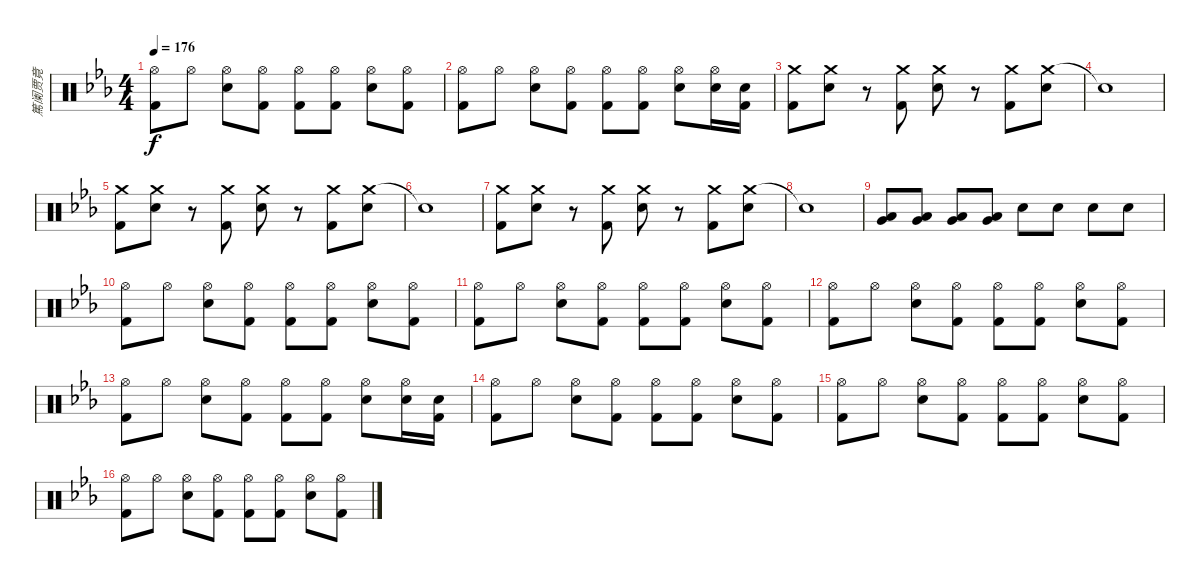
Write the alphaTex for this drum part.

\track ("篤阑贾竟" "篤阑贾竟") {instrument percussion}
\staff {score}
\articulation defaults
\ts (4 4)
\tempo 176
\clef neutral
\ks eb
("Hi-Hat (open)" "Kick (hit) 2").8{dy f} "Hi-Hat (open)".8 ("Hi-Hat (open)" "Snare (hit) 2").8 ("Hi-Hat (open)" "Kick (hit) 2").8 ("Hi-Hat (open)" "Kick (hit) 2").8 ("Hi-Hat (open)" "Kick (hit) 2").8 ("Hi-Hat (open)" "Snare (hit) 2").8 ("Hi-Hat (open)" "Kick (hit) 2").8 |
("Hi-Hat (open)" "Kick (hit) 2").8 "Hi-Hat (open)".8 ("Hi-Hat (open)" "Snare (hit) 2").8 ("Hi-Hat (open)" "Kick (hit) 2").8 ("Hi-Hat (open)" "Kick (hit) 2").8 ("Hi-Hat (open)" "Kick (hit) 2").8 ("Hi-Hat (open)" "Snare (hit) 2").8 ("Hi-Hat (open)" "Snare (hit) 2").16 ("Snare (hit) 2" "Kick (hit) 2").16 |
("Crash medium (hit)" "Kick (hit) 2").8 ("Crash medium (hit)" "Snare (hit) 2").8 r.8 ("Crash medium (hit)" "Kick (hit) 2").8 ("Crash medium (hit)" "Snare (hit) 2").8 r.8 ("Crash medium (hit)" "Kick (hit) 2").8 ("Crash medium (hit)" "Snare (hit) 2").8 |
"Snare (hit)"{t}.1 |
("Crash medium (hit)" "Kick (hit) 2").8 ("Crash medium (hit)" "Snare (hit) 2").8 r.8 ("Crash medium (hit)" "Kick (hit) 2").8 ("Crash medium (hit)" "Snare (hit) 2").8 r.8 ("Crash medium (hit)" "Kick (hit) 2").8 ("Crash medium (hit)" "Snare (hit) 2").8 |
"Snare (hit)"{t}.1 |
("Crash medium (hit)" "Kick (hit) 2").8 ("Crash medium (hit)" "Snare (hit) 2").8 r.8 ("Crash medium (hit)" "Kick (hit) 2").8 ("Crash medium (hit)" "Snare (hit) 2").8 r.8 ("Crash medium (hit)" "Kick (hit) 2").8 ("Crash medium (hit)" "Snare (hit) 2").8 |
"Snare (hit)"{t}.1 |
("Very Low Tom (hit)" "Low Floor Tom (hit)").8{volume 11} ("Very Low Tom (hit)" "Low Floor Tom (hit)").8 ("Very Low Tom (hit)" "Low Floor Tom (hit)").8 ("Very Low Tom (hit)" "Low Floor Tom (hit)").8 "Snare (hit) 2".8{volume 13} "Snare (hit) 2".8 "Snare (hit) 2".8 "Snare (hit) 2".8 |
("Hi-Hat (open)" "Kick (hit) 2").8 "Hi-Hat (open)".8 ("Hi-Hat (open)" "Snare (hit) 2").8 ("Hi-Hat (open)" "Kick (hit) 2").8 ("Hi-Hat (open)" "Kick (hit) 2").8 ("Hi-Hat (open)" "Kick (hit) 2").8 ("Hi-Hat (open)" "Snare (hit) 2").8 ("Hi-Hat (open)" "Kick (hit) 2").8 |
("Hi-Hat (open)" "Kick (hit) 2").8 "Hi-Hat (open)".8 ("Hi-Hat (open)" "Snare (hit) 2").8 ("Hi-Hat (open)" "Kick (hit) 2").8 ("Hi-Hat (open)" "Kick (hit) 2").8 ("Hi-Hat (open)" "Kick (hit) 2").8 ("Hi-Hat (open)" "Snare (hit) 2").8 ("Hi-Hat (open)" "Kick (hit) 2").8 |
("Hi-Hat (open)" "Kick (hit) 2").8 "Hi-Hat (open)".8 ("Hi-Hat (open)" "Snare (hit) 2").8 ("Hi-Hat (open)" "Kick (hit) 2").8 ("Hi-Hat (open)" "Kick (hit) 2").8 ("Hi-Hat (open)" "Kick (hit) 2").8 ("Hi-Hat (open)" "Snare (hit) 2").8 ("Hi-Hat (open)" "Kick (hit) 2").8 |
("Hi-Hat (open)" "Kick (hit) 2").8 "Hi-Hat (open)".8 ("Hi-Hat (open)" "Snare (hit) 2").8 ("Hi-Hat (open)" "Kick (hit) 2").8 ("Hi-Hat (open)" "Kick (hit) 2").8 ("Hi-Hat (open)" "Kick (hit) 2").8 ("Hi-Hat (open)" "Snare (hit) 2").8 ("Hi-Hat (open)" "Snare (hit) 2").16 ("Snare (hit) 2" "Kick (hit) 2").16 |
("Hi-Hat (open)" "Kick (hit) 2").8 "Hi-Hat (open)".8 ("Hi-Hat (open)" "Snare (hit) 2").8 ("Hi-Hat (open)" "Kick (hit) 2").8 ("Hi-Hat (open)" "Kick (hit) 2").8 ("Hi-Hat (open)" "Kick (hit) 2").8 ("Hi-Hat (open)" "Snare (hit) 2").8 ("Hi-Hat (open)" "Kick (hit) 2").8 |
("Hi-Hat (open)" "Kick (hit) 2").8 "Hi-Hat (open)".8 ("Hi-Hat (open)" "Snare (hit) 2").8 ("Hi-Hat (open)" "Kick (hit) 2").8 ("Hi-Hat (open)" "Kick (hit) 2").8 ("Hi-Hat (open)" "Kick (hit) 2").8 ("Hi-Hat (open)" "Snare (hit) 2").8 ("Hi-Hat (open)" "Kick (hit) 2").8 |
("Hi-Hat (open)" "Kick (hit) 2").8 "Hi-Hat (open)".8 ("Hi-Hat (open)" "Snare (hit) 2").8 ("Hi-Hat (open)" "Kick (hit) 2").8 ("Hi-Hat (open)" "Kick (hit) 2").8 ("Hi-Hat (open)" "Kick (hit) 2").8 ("Hi-Hat (open)" "Snare (hit) 2").8 ("Hi-Hat (open)" "Kick (hit) 2").8
